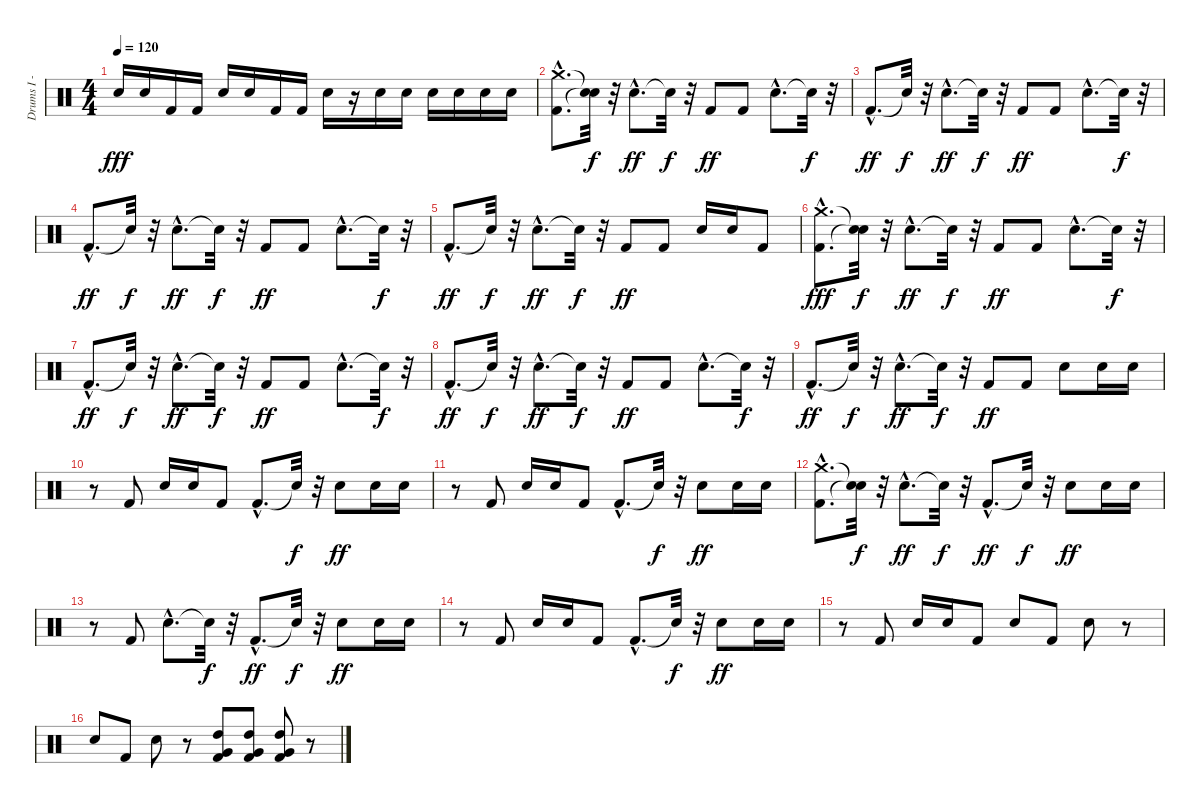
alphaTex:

\track ("Drums I - Bobby Schayer" "Drums I - ") {instrument percussion}
\staff {score}
\articulation defaults
\ts (4 4)
\tempo 120
\clef neutral
\ks c "Snare (hit) 2".16{dy fff} "Snare (hit) 2".16 "Kick (hit) 2".16 "Kick (hit) 2".16 "Snare (hit) 2".16 "Snare (hit) 2".16 "Kick (hit) 2".16 "Kick (hit) 2".16 "Snare (hit) 2".16
r.16 "Snare (hit) 2".16 "Snare (hit) 2".16 "Snare (hit) 2".16 "Snare (hit) 2".16 "Snare (hit) 2".16 "Snare (hit) 2".16 |
("Kick (hit) 2"{hac} "Crash medium (hit)"{hac}).8{d} ("Snare (hit)"{t} "Snare (hit)"{t}).32{dy f} r.32 "Snare (hit) 2"{hac}.8{d dy ff} "Snare (hit)"{t}.32{dy f} r.32 "Kick (hit) 2".8{dy ff} "Kick (hit) 2".8 "Snare (hit) 2"{hac}.8{d} "Snare (hit)"{t}.32{dy f} r.32 |
"Kick (hit) 2"{hac}.8{d dy ff} "Snare (hit)"{t}.32{dy f} r.32 "Snare (hit) 2"{hac}.8{d dy ff} "Snare (hit)"{t}.32{dy f} r.32 "Kick (hit) 2".8{dy ff} "Kick (hit) 2".8 "Snare (hit) 2"{hac}.8{d} "Snare (hit)"{t}.32{dy f} r.32 |
"Kick (hit) 2"{hac}.8{d dy ff} "Snare (hit)"{t}.32{dy f} r.32 "Snare (hit) 2"{hac}.8{d dy ff} "Snare (hit)"{t}.32{dy f} r.32 "Kick (hit) 2".8{dy ff} "Kick (hit) 2".8 "Snare (hit) 2"{hac}.8{d} "Snare (hit)"{t}.32{dy f} r.32 |
"Kick (hit) 2"{hac}.8{d dy ff} "Snare (hit)"{t}.32{dy f} r.32 "Snare (hit) 2"{hac}.8{d dy ff} "Snare (hit)"{t}.32{dy f} r.32 "Kick (hit) 2".8{dy ff} "Kick (hit) 2".8 "Snare (hit) 2".16 "Snare (hit) 2".16 "Kick (hit) 2".8 |
("Kick (hit) 2"{hac} "Crash medium (hit)"{hac}).8{d dy fff} ("Snare (hit)"{t} "Snare (hit)"{t}).32{dy f} r.32 "Snare (hit) 2"{hac}.8{d dy ff} "Snare (hit)"{t}.32{dy f} r.32 "Kick (hit) 2".8{dy ff} "Kick (hit) 2".8 "Snare (hit) 2"{hac}.8{d} "Snare (hit)"{t}.32{dy f} r.32 |
"Kick (hit) 2"{hac}.8{d dy ff} "Snare (hit)"{t}.32{dy f} r.32 "Snare (hit) 2"{hac}.8{d dy ff} "Snare (hit)"{t}.32{dy f} r.32 "Kick (hit) 2".8{dy ff} "Kick (hit) 2".8 "Snare (hit) 2"{hac}.8{d} "Snare (hit)"{t}.32{dy f} r.32 |
"Kick (hit) 2"{hac}.8{d dy ff} "Snare (hit)"{t}.32{dy f} r.32 "Snare (hit) 2"{hac}.8{d dy ff} "Snare (hit)"{t}.32{dy f} r.32 "Kick (hit) 2".8{dy ff} "Kick (hit) 2".8 "Snare (hit) 2"{hac}.8{d} "Snare (hit)"{t}.32{dy f} r.32 |
"Kick (hit) 2"{hac}.8{d dy ff} "Snare (hit)"{t}.32{dy f} r.32 "Snare (hit) 2"{hac}.8{d dy ff} "Snare (hit)"{t}.32{dy f} r.32 "Kick (hit) 2".8{dy ff} "Kick (hit) 2".8 "Snare (hit) 2".8 "Snare (hit) 2".16 "Snare (hit) 2".16 |
r.8 "Kick (hit) 2".8 "Snare (hit) 2".16 "Snare (hit) 2".16 "Kick (hit) 2".8 "Kick (hit) 2"{hac}.8{d} "Snare (hit)"{t}.32{dy f} r.32 "Snare (hit) 2".8{dy ff} "Snare (hit) 2".16 "Snare (hit) 2".16 |
r.8 "Kick (hit) 2".8 "Snare (hit) 2".16 "Snare (hit) 2".16 "Kick (hit) 2".8 "Kick (hit) 2"{hac}.8{d} "Snare (hit)"{t}.32{dy f} r.32 "Snare (hit) 2".8{dy ff} "Snare (hit) 2".16 "Snare (hit) 2".16 |
("Kick (hit) 2"{hac} "Crash medium (hit)"{hac}).8{d} ("Snare (hit)"{t} "Snare (hit)"{t}).32{dy f} r.32 "Snare (hit) 2"{hac}.8{d dy ff} "Snare (hit)"{t}.32{dy f} r.32 "Kick (hit) 2"{hac}.8{d dy ff} "Snare (hit)"{t}.32{dy f} r.32 "Snare (hit) 2".8{dy ff} "Snare (hit) 2".16 "Snare (hit) 2".16 |
r.8 "Kick (hit) 2".8 "Snare (hit) 2"{hac}.8{d} "Snare (hit)"{t}.32{dy f} r.32 "Kick (hit) 2"{hac}.8{d dy ff} "Snare (hit)"{t}.32{dy f} r.32 "Snare (hit) 2".8{dy ff} "Snare (hit) 2".16 "Snare (hit) 2".16 |
r.8 "Kick (hit) 2".8 "Snare (hit) 2".16 "Snare (hit) 2".16 "Kick (hit) 2".8 "Kick (hit) 2"{hac}.8{d} "Snare (hit)"{t}.32{dy f} r.32 "Snare (hit) 2".8{dy ff} "Snare (hit) 2".16 "Snare (hit) 2".16 |
r.8 "Kick (hit) 2".8 "Snare (hit) 2".16 "Snare (hit) 2".16 "Kick (hit) 2".8 "Snare (hit) 2".8 "Kick (hit) 2".8 "Snare (hit) 2".8 r.8 |
"Snare (hit) 2".8 "Kick (hit) 2".8 "Snare (hit) 2".8 r.8 ("Kick (hit) 2" "Very Low Tom (hit)" "High Tom (hit)").8 ("Kick (hit) 2" "Very Low Tom (hit)" "High Tom (hit)").8 ("Kick (hit) 2" "Very Low Tom (hit)" "High Tom (hit)").8 r.8
